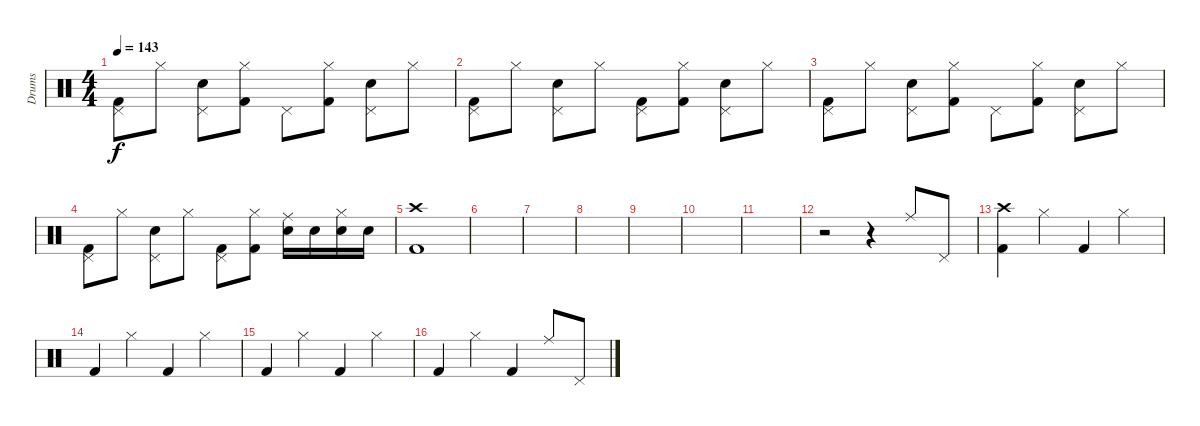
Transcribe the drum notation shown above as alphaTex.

\track ("Drums" "Drums") {instrument percussion}
\staff {score}
\articulation defaults
\ts (4 4)
\tempo 143
\clef neutral
\ks c
("Kick (hit) 2" "Pedal Hi-Hat (hit)").8{dy f} "Hi-Hat (closed)".8 ("Electric Snare (hit)" "Pedal Hi-Hat (hit)").8 ("Kick (hit) 2" "Hi-Hat (closed)").8 "Pedal Hi-Hat (hit)".8 ("Kick (hit) 2" "Hi-Hat (closed)").8 ("Electric Snare (hit)" "Pedal Hi-Hat (hit)").8 "Hi-Hat (closed)".8 |
("Kick (hit) 2" "Pedal Hi-Hat (hit)").8 "Hi-Hat (closed)".8 ("Electric Snare (hit)" "Pedal Hi-Hat (hit)").8 "Hi-Hat (closed)".8 ("Kick (hit) 2" "Pedal Hi-Hat (hit)").8 ("Kick (hit) 2" "Hi-Hat (closed)").8 ("Electric Snare (hit)" "Pedal Hi-Hat (hit)").8 "Hi-Hat (closed)".8 |
("Kick (hit) 2" "Pedal Hi-Hat (hit)").8 "Hi-Hat (closed)".8 ("Electric Snare (hit)" "Pedal Hi-Hat (hit)").8 ("Kick (hit) 2" "Hi-Hat (closed)").8 "Pedal Hi-Hat (hit)".8 ("Kick (hit) 2" "Hi-Hat (closed)").8 ("Electric Snare (hit)" "Pedal Hi-Hat (hit)").8 "Hi-Hat (closed)".8 |
("Kick (hit) 2" "Pedal Hi-Hat (hit)").8 "Hi-Hat (closed)".8 ("Electric Snare (hit)" "Pedal Hi-Hat (hit)").8 "Hi-Hat (closed)".8 ("Kick (hit) 2" "Pedal Hi-Hat (hit)").8 ("Kick (hit) 2" "Hi-Hat (closed)").8 ("Electric Snare (hit)" "Ride (middle)").16 "Snare (hit) 2".16 ("Electric Snare (hit)" "Hi-Hat (closed)").16 "Snare (hit) 2".16 |
("Kick (hit) 2" "Crash high (hit)").1 |
|
|
|
|
|
|
r.2 r.4 "Ride (middle)".8 "Pedal Hi-Hat (hit)".8 |
("Kick (hit) 2" "Crash high (hit)").4 "Hi-Hat (closed)".4 "Kick (hit) 2".4 "Hi-Hat (closed)".4 |
"Kick (hit) 2".4 "Hi-Hat (closed)".4 "Kick (hit) 2".4 "Hi-Hat (closed)".4 |
"Kick (hit) 2".4 "Hi-Hat (closed)".4 "Kick (hit) 2".4 "Hi-Hat (closed)".4 |
"Kick (hit) 2".4 "Hi-Hat (closed)".4 "Kick (hit) 2".4 "Ride (middle)".8 "Pedal Hi-Hat (hit)".8
